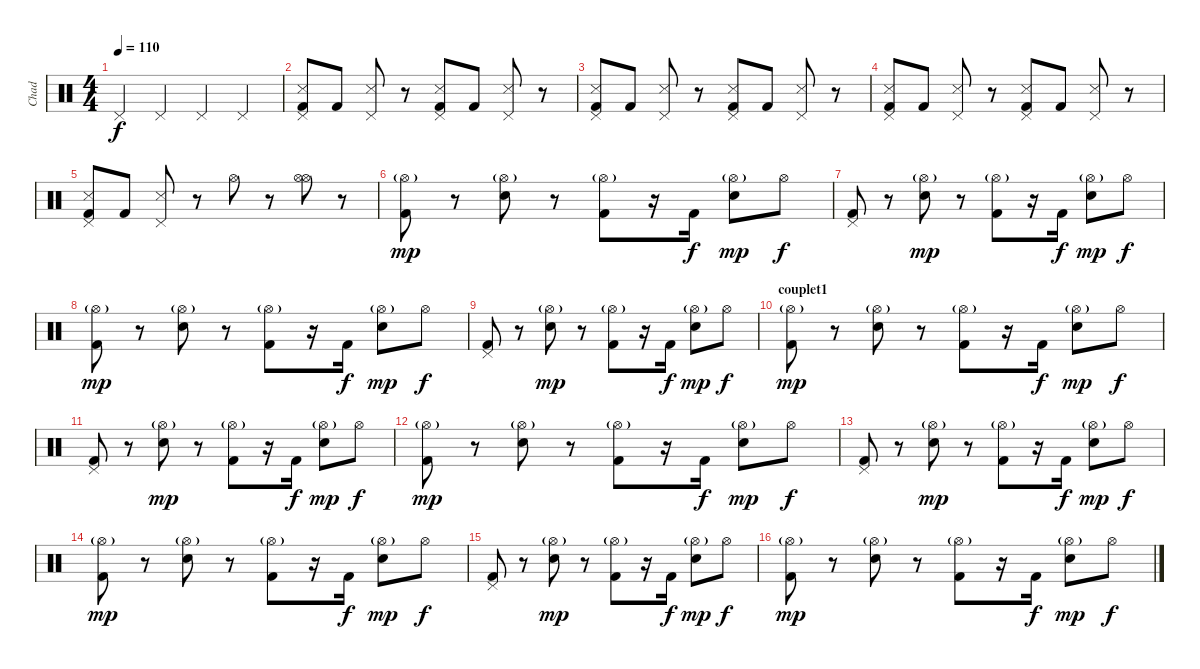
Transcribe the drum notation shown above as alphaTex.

\track ("Chad" "Chad") {instrument percussion}
\staff {score}
\articulation defaults
\ts (4 4)
\tempo 110
\clef neutral
\ks c "Pedal Hi-Hat (hit)".4{dy f} "Pedal Hi-Hat (hit)".4 "Pedal Hi-Hat (hit)".4 "Pedal Hi-Hat (hit)".4
|
("Pedal Hi-Hat (hit)" "Snare (side stick) 3" "Kick (hit) 2").8 "Kick (hit) 2".8 ("Pedal Hi-Hat (hit)" "Snare (side stick) 3").8 r.8 ("Pedal Hi-Hat (hit)" "Snare (side stick) 3" "Kick (hit) 2").8 "Kick (hit) 2".8 ("Pedal Hi-Hat (hit)" "Snare (side stick) 3").8 r.8 |
("Pedal Hi-Hat (hit)" "Snare (side stick) 3" "Kick (hit) 2").8 "Kick (hit) 2".8 ("Pedal Hi-Hat (hit)" "Snare (side stick) 3").8 r.8 ("Pedal Hi-Hat (hit)" "Snare (side stick) 3" "Kick (hit) 2").8 "Kick (hit) 2".8 ("Pedal Hi-Hat (hit)" "Snare (side stick) 3").8 r.8 |
("Pedal Hi-Hat (hit)" "Snare (side stick) 3" "Kick (hit) 2").8 "Kick (hit) 2".8 ("Pedal Hi-Hat (hit)" "Snare (side stick) 3").8 r.8 ("Pedal Hi-Hat (hit)" "Snare (side stick) 3" "Kick (hit) 2").8 "Kick (hit) 2".8 ("Pedal Hi-Hat (hit)" "Snare (side stick) 3").8 r.8 |
("Pedal Hi-Hat (hit)" "Snare (side stick) 3" "Kick (hit) 2").8 "Kick (hit) 2".8 ("Pedal Hi-Hat (hit)" "Snare (side stick) 3").8 r.8 "Hi-Hat (open)".8 r.8 ("Hi-Hat (open)" "Hi-Hat (open)").8 r.8 |
("Hi-Hat (open)"{g} "Kick (hit) 2").8{dy mp} r.8 ("Hi-Hat (open)"{g} "Electric Snare (hit)").8 r.8 ("Hi-Hat (open)"{g} "Kick (hit) 2").8 r.16 "Kick (hit) 2".16{dy f} ("Hi-Hat (open)"{g} "Electric Snare (hit)").8{dy mp} "Hi-Hat (open)".8{dy f} |
("Pedal Hi-Hat (hit)" "Kick (hit) 2").8 r.8 ("Hi-Hat (open)"{g} "Electric Snare (hit)").8{dy mp} r.8 ("Hi-Hat (open)"{g} "Kick (hit) 2").8 r.16 "Kick (hit) 2".16{dy f} ("Hi-Hat (open)"{g} "Electric Snare (hit)").8{dy mp} "Hi-Hat (open)".8{dy f} |
("Hi-Hat (open)"{g} "Kick (hit) 2").8{dy mp} r.8 ("Hi-Hat (open)"{g} "Electric Snare (hit)").8 r.8 ("Hi-Hat (open)"{g} "Kick (hit) 2").8 r.16 "Kick (hit) 2".16{dy f} ("Hi-Hat (open)"{g} "Electric Snare (hit)").8{dy mp} "Hi-Hat (open)".8{dy f} |
("Pedal Hi-Hat (hit)" "Kick (hit) 2").8 r.8 ("Hi-Hat (open)"{g} "Electric Snare (hit)").8{dy mp} r.8 ("Hi-Hat (open)"{g} "Kick (hit) 2").8 r.16 "Kick (hit) 2".16{dy f} ("Hi-Hat (open)"{g} "Electric Snare (hit)").8{dy mp} "Hi-Hat (open)".8{dy f} |
\section ("" "couplet1")
("Hi-Hat (open)"{g} "Kick (hit) 2").8{dy mp} r.8 ("Hi-Hat (open)"{g} "Electric Snare (hit)").8 r.8 ("Hi-Hat (open)"{g} "Kick (hit) 2").8 r.16 "Kick (hit) 2".16{dy f} ("Hi-Hat (open)"{g} "Electric Snare (hit)").8{dy mp} "Hi-Hat (open)".8{dy f} |
("Pedal Hi-Hat (hit)" "Kick (hit) 2").8 r.8 ("Hi-Hat (open)"{g} "Electric Snare (hit)").8{dy mp} r.8 ("Hi-Hat (open)"{g} "Kick (hit) 2").8 r.16 "Kick (hit) 2".16{dy f} ("Hi-Hat (open)"{g} "Electric Snare (hit)").8{dy mp} "Hi-Hat (open)".8{dy f} |
("Hi-Hat (open)"{g} "Kick (hit) 2").8{dy mp} r.8 ("Hi-Hat (open)"{g} "Electric Snare (hit)").8 r.8 ("Hi-Hat (open)"{g} "Kick (hit) 2").8 r.16 "Kick (hit) 2".16{dy f} ("Hi-Hat (open)"{g} "Electric Snare (hit)").8{dy mp} "Hi-Hat (open)".8{dy f} |
("Pedal Hi-Hat (hit)" "Kick (hit) 2").8 r.8 ("Hi-Hat (open)"{g} "Electric Snare (hit)").8{dy mp} r.8 ("Hi-Hat (open)"{g} "Kick (hit) 2").8 r.16 "Kick (hit) 2".16{dy f} ("Hi-Hat (open)"{g} "Electric Snare (hit)").8{dy mp} "Hi-Hat (open)".8{dy f} |
("Hi-Hat (open)"{g} "Kick (hit) 2").8{dy mp} r.8 ("Hi-Hat (open)"{g} "Electric Snare (hit)").8 r.8 ("Hi-Hat (open)"{g} "Kick (hit) 2").8 r.16 "Kick (hit) 2".16{dy f} ("Hi-Hat (open)"{g} "Electric Snare (hit)").8{dy mp} "Hi-Hat (open)".8{dy f} |
("Pedal Hi-Hat (hit)" "Kick (hit) 2").8 r.8 ("Hi-Hat (open)"{g} "Electric Snare (hit)").8{dy mp} r.8 ("Hi-Hat (open)"{g} "Kick (hit) 2").8 r.16 "Kick (hit) 2".16{dy f} ("Hi-Hat (open)"{g} "Electric Snare (hit)").8{dy mp} "Hi-Hat (open)".8{dy f} |
("Hi-Hat (open)"{g} "Kick (hit) 2").8{dy mp} r.8 ("Hi-Hat (open)"{g} "Electric Snare (hit)").8 r.8 ("Hi-Hat (open)"{g} "Kick (hit) 2").8 r.16 "Kick (hit) 2".16{dy f} ("Hi-Hat (open)"{g} "Electric Snare (hit)").8{dy mp} "Hi-Hat (open)".8{dy f}
